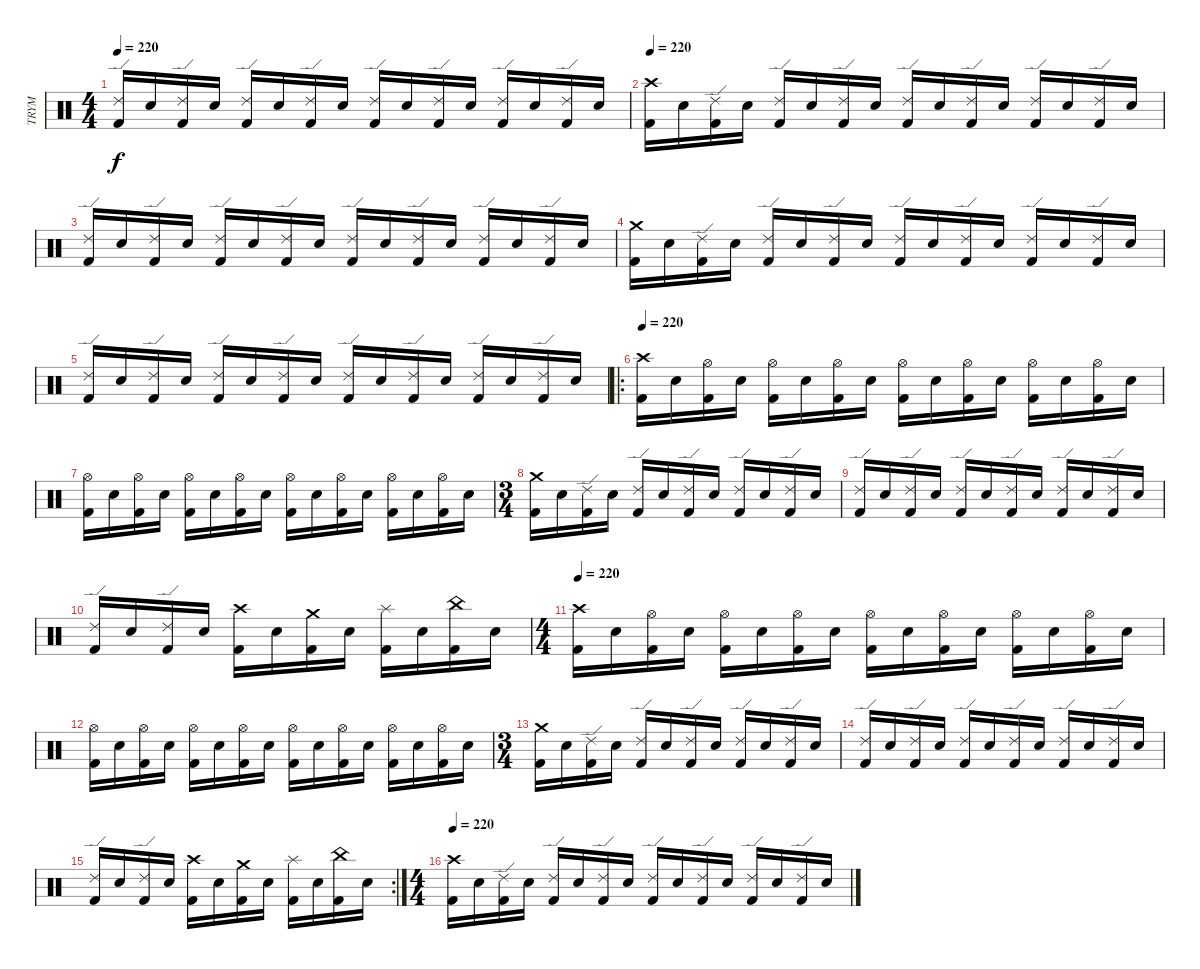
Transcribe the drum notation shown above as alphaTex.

\track ("TRYM" "TRYM") {instrument percussion}
\staff {score}
\articulation defaults
\ts (4 4)
\tempo 220
\clef neutral
\ks c
("Kick (hit) 2" "Ride (edge) 2").16{dy f} "Electric Snare (hit)".16 ("Kick (hit) 2" "Ride (edge) 2").16 "Electric Snare (hit)".16 ("Kick (hit) 2" "Ride (edge) 2").16 "Electric Snare (hit)".16 ("Kick (hit) 2" "Ride (edge) 2").16 "Electric Snare (hit)".16 ("Kick (hit) 2" "Ride (edge) 2").16 "Electric Snare (hit)".16 ("Kick (hit) 2" "Ride (edge) 2").16 "Electric Snare (hit)".16 ("Kick (hit) 2" "Ride (edge) 2").16 "Electric Snare (hit)".16 ("Kick (hit) 2" "Ride (edge) 2").16 "Electric Snare (hit)".16 |
\tempo 220
("Kick (hit) 2" "Crash high (hit)").16 "Electric Snare (hit)".16 ("Kick (hit) 2" "Ride (edge) 2").16 "Electric Snare (hit)".16 ("Kick (hit) 2" "Ride (edge) 2").16 "Electric Snare (hit)".16 ("Kick (hit) 2" "Ride (edge) 2").16 "Electric Snare (hit)".16 ("Kick (hit) 2" "Ride (edge) 2").16 "Electric Snare (hit)".16 ("Kick (hit) 2" "Ride (edge) 2").16 "Electric Snare (hit)".16 ("Kick (hit) 2" "Ride (edge) 2").16 "Electric Snare (hit)".16 ("Kick (hit) 2" "Ride (edge) 2").16 "Electric Snare (hit)".16 |
("Kick (hit) 2" "Ride (edge) 2").16 "Electric Snare (hit)".16 ("Kick (hit) 2" "Ride (edge) 2").16 "Electric Snare (hit)".16 ("Kick (hit) 2" "Ride (edge) 2").16 "Electric Snare (hit)".16 ("Kick (hit) 2" "Ride (edge) 2").16 "Electric Snare (hit)".16 ("Kick (hit) 2" "Ride (edge) 2").16 "Electric Snare (hit)".16 ("Kick (hit) 2" "Ride (edge) 2").16 "Electric Snare (hit)".16 ("Kick (hit) 2" "Ride (edge) 2").16 "Electric Snare (hit)".16 ("Kick (hit) 2" "Ride (edge) 2").16 "Electric Snare (hit)".16 |
("Kick (hit) 2" "Crash medium (hit)").16 "Electric Snare (hit)".16 ("Kick (hit) 2" "Ride (edge) 2").16 "Electric Snare (hit)".16 ("Kick (hit) 2" "Ride (edge) 2").16 "Electric Snare (hit)".16 ("Kick (hit) 2" "Ride (edge) 2").16 "Electric Snare (hit)".16 ("Kick (hit) 2" "Ride (edge) 2").16 "Electric Snare (hit)".16 ("Kick (hit) 2" "Ride (edge) 2").16 "Electric Snare (hit)".16 ("Kick (hit) 2" "Ride (edge) 2").16 "Electric Snare (hit)".16 ("Kick (hit) 2" "Ride (edge) 2").16 "Electric Snare (hit)".16 |
("Kick (hit) 2" "Ride (edge) 2").16 "Electric Snare (hit)".16 ("Kick (hit) 2" "Ride (edge) 2").16 "Electric Snare (hit)".16 ("Kick (hit) 2" "Ride (edge) 2").16 "Electric Snare (hit)".16 ("Kick (hit) 2" "Ride (edge) 2").16 "Electric Snare (hit)".16 ("Kick (hit) 2" "Ride (edge) 2").16 "Electric Snare (hit)".16 ("Kick (hit) 2" "Ride (edge) 2").16 "Electric Snare (hit)".16 ("Kick (hit) 2" "Ride (edge) 2").16 "Electric Snare (hit)".16 ("Kick (hit) 2" "Ride (edge) 2").16 "Electric Snare (hit)".16 |
\ro
\tempo 220
("Kick (hit) 2" "Crash high (hit)").16 "Electric Snare (hit)".16 ("Kick (hit) 2" "Hi-Hat (open)").16 "Electric Snare (hit)".16 ("Kick (hit) 2" "Hi-Hat (open)").16 "Electric Snare (hit)".16 ("Kick (hit) 2" "Hi-Hat (open)").16 "Electric Snare (hit)".16 ("Kick (hit) 2" "Hi-Hat (open)").16 "Electric Snare (hit)".16 ("Kick (hit) 2" "Hi-Hat (open)").16 "Electric Snare (hit)".16 ("Kick (hit) 2" "Hi-Hat (open)").16 "Electric Snare (hit)".16 ("Kick (hit) 2" "Hi-Hat (open)").16 "Electric Snare (hit)".16 |
("Kick (hit) 2" "Hi-Hat (open)").16 "Electric Snare (hit)".16 ("Kick (hit) 2" "Hi-Hat (open)").16 "Electric Snare (hit)".16 ("Kick (hit) 2" "Hi-Hat (open)").16 "Electric Snare (hit)".16 ("Kick (hit) 2" "Hi-Hat (open)").16 "Electric Snare (hit)".16 ("Kick (hit) 2" "Hi-Hat (open)").16 "Electric Snare (hit)".16 ("Kick (hit) 2" "Hi-Hat (open)").16 "Electric Snare (hit)".16 ("Kick (hit) 2" "Hi-Hat (open)").16 "Electric Snare (hit)".16 ("Kick (hit) 2" "Hi-Hat (open)").16 "Electric Snare (hit)".16 |
\ts (3 4)
("Kick (hit) 2" "Crash medium (hit)").16 "Electric Snare (hit)".16 ("Kick (hit) 2" "Ride (edge) 2").16 "Electric Snare (hit)".16 ("Kick (hit) 2" "Ride (edge) 2").16 "Electric Snare (hit)".16 ("Kick (hit) 2" "Ride (edge) 2").16 "Electric Snare (hit)".16 ("Kick (hit) 2" "Ride (edge) 2").16 "Electric Snare (hit)".16 ("Kick (hit) 2" "Ride (edge) 2").16 "Electric Snare (hit)".16 |
("Kick (hit) 2" "Ride (edge) 2").16 "Electric Snare (hit)".16 ("Kick (hit) 2" "Ride (edge) 2").16 "Electric Snare (hit)".16 ("Kick (hit) 2" "Ride (edge) 2").16 "Electric Snare (hit)".16 ("Kick (hit) 2" "Ride (edge) 2").16 "Electric Snare (hit)".16 ("Kick (hit) 2" "Ride (edge) 2").16 "Electric Snare (hit)".16 ("Kick (hit) 2" "Ride (edge) 2").16 "Electric Snare (hit)".16 |
("Kick (hit) 2" "Ride (edge) 2").16 "Electric Snare (hit)".16 ("Kick (hit) 2" "Ride (edge) 2").16 "Electric Snare (hit)".16 ("Kick (hit) 2" "Crash high (hit)").16 "Electric Snare (hit)".16 ("Kick (hit) 2" "Crash medium (hit)").16 "Electric Snare (hit)".16 ("Kick (hit) 2" "Splash (hit)").16 "Electric Snare (hit)".16 ("Kick (hit) 2" "China (hit)").16 "Electric Snare (hit)".16 |
\ts (4 4)
\tempo 220
("Kick (hit) 2" "Crash high (hit)").16 "Electric Snare (hit)".16 ("Kick (hit) 2" "Hi-Hat (open)").16 "Electric Snare (hit)".16 ("Kick (hit) 2" "Hi-Hat (open)").16 "Electric Snare (hit)".16 ("Kick (hit) 2" "Hi-Hat (open)").16 "Electric Snare (hit)".16 ("Kick (hit) 2" "Hi-Hat (open)").16 "Electric Snare (hit)".16 ("Kick (hit) 2" "Hi-Hat (open)").16 "Electric Snare (hit)".16 ("Kick (hit) 2" "Hi-Hat (open)").16 "Electric Snare (hit)".16 ("Kick (hit) 2" "Hi-Hat (open)").16 "Electric Snare (hit)".16 |
("Kick (hit) 2" "Hi-Hat (open)").16 "Electric Snare (hit)".16 ("Kick (hit) 2" "Hi-Hat (open)").16 "Electric Snare (hit)".16 ("Kick (hit) 2" "Hi-Hat (open)").16 "Electric Snare (hit)".16 ("Kick (hit) 2" "Hi-Hat (open)").16 "Electric Snare (hit)".16 ("Kick (hit) 2" "Hi-Hat (open)").16 "Electric Snare (hit)".16 ("Kick (hit) 2" "Hi-Hat (open)").16 "Electric Snare (hit)".16 ("Kick (hit) 2" "Hi-Hat (open)").16 "Electric Snare (hit)".16 ("Kick (hit) 2" "Hi-Hat (open)").16 "Electric Snare (hit)".16 |
\ts (3 4)
("Kick (hit) 2" "Crash medium (hit)").16 "Electric Snare (hit)".16 ("Kick (hit) 2" "Ride (edge) 2").16 "Electric Snare (hit)".16 ("Kick (hit) 2" "Ride (edge) 2").16 "Electric Snare (hit)".16 ("Kick (hit) 2" "Ride (edge) 2").16 "Electric Snare (hit)".16 ("Kick (hit) 2" "Ride (edge) 2").16 "Electric Snare (hit)".16 ("Kick (hit) 2" "Ride (edge) 2").16 "Electric Snare (hit)".16 |
("Kick (hit) 2" "Ride (edge) 2").16 "Electric Snare (hit)".16 ("Kick (hit) 2" "Ride (edge) 2").16 "Electric Snare (hit)".16 ("Kick (hit) 2" "Ride (edge) 2").16 "Electric Snare (hit)".16 ("Kick (hit) 2" "Ride (edge) 2").16 "Electric Snare (hit)".16 ("Kick (hit) 2" "Ride (edge) 2").16 "Electric Snare (hit)".16 ("Kick (hit) 2" "Ride (edge) 2").16 "Electric Snare (hit)".16 |
\rc 2
("Kick (hit) 2" "Ride (edge) 2").16 "Electric Snare (hit)".16 ("Kick (hit) 2" "Ride (edge) 2").16 "Electric Snare (hit)".16 ("Kick (hit) 2" "Crash high (hit)").16 "Electric Snare (hit)".16 ("Kick (hit) 2" "Crash medium (hit)").16 "Electric Snare (hit)".16 ("Kick (hit) 2" "Splash (hit)").16 "Electric Snare (hit)".16 ("Kick (hit) 2" "China (hit)").16 "Electric Snare (hit)".16 |
\ts (4 4)
\tempo 220
("Kick (hit) 2" "Crash high (hit)").16 "Electric Snare (hit)".16 ("Kick (hit) 2" "Ride (edge) 2").16 "Electric Snare (hit)".16 ("Kick (hit) 2" "Ride (edge) 2").16 "Electric Snare (hit)".16 ("Kick (hit) 2" "Ride (edge) 2").16 "Electric Snare (hit)".16 ("Kick (hit) 2" "Ride (edge) 2").16 "Electric Snare (hit)".16 ("Kick (hit) 2" "Ride (edge) 2").16 "Electric Snare (hit)".16 ("Kick (hit) 2" "Ride (edge) 2").16 "Electric Snare (hit)".16 ("Kick (hit) 2" "Ride (edge) 2").16 "Electric Snare (hit)".16
